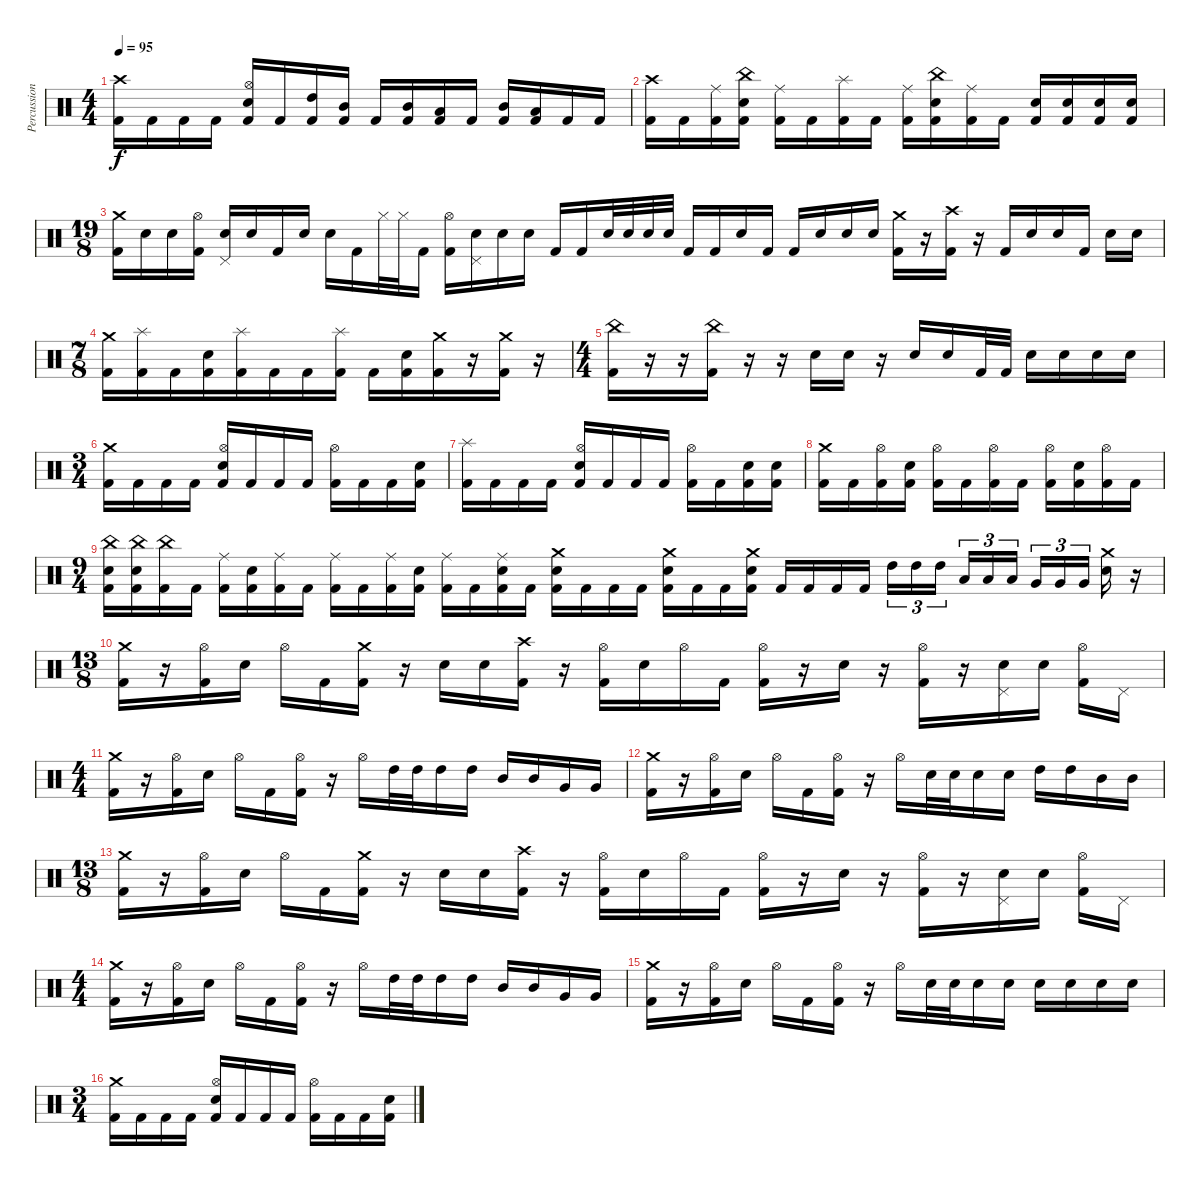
\track ("Percussion" "Percussion") {instrument percussion}
\staff {score}
\articulation defaults
\ts (4 4)
\tempo 95
\clef neutral
\ks c
("Crash high (hit)" "Kick (hit) 2").16{dy f} "Kick (hit) 2".16 "Kick (hit) 2".16 "Kick (hit) 2".16 ("Hi-Hat (open)" "Electric Snare (hit)" "Kick (hit) 2").16 "Kick (hit) 2".16 ("High Tom (hit)" "Kick (hit) 2").16 ("Mid Tom (hit)" "Kick (hit) 2").16 "Kick (hit) 2".16 ("Mid Tom (hit)" "Kick (hit) 2").16 ("Low Tom (hit)" "Kick (hit) 2").16 "Kick (hit) 2".16 ("Mid Tom (hit)" "Kick (hit) 2").16 ("Low Tom (hit)" "Kick (hit) 2").16 "Kick (hit) 2".16 "Kick (hit) 2".16 |
("Crash high (hit)" "Kick (hit) 2").16 "Kick (hit) 2".16 ("Ride (middle)" "Kick (hit) 2").16 ("China (hit)" "Electric Snare (hit)" "Kick (hit) 2").16 ("Ride (middle)" "Kick (hit) 2").16 "Kick (hit) 2".16 ("Splash (hit)" "Kick (hit) 2").16 "Kick (hit) 2".16 ("Ride (middle)" "Kick (hit) 2").16 ("China (hit)" "Electric Snare (hit)" "Kick (hit) 2").16 ("Ride (middle)" "Kick (hit) 2").16 "Kick (hit) 2".16 ("Electric Snare (hit)" "Kick (hit) 2").16 ("Electric Snare (hit)" "Kick (hit) 2").16 ("Electric Snare (hit)" "Kick (hit) 2").16 ("Electric Snare (hit)" "Kick (hit) 2").16 |
\ts (19 8)
("Crash medium (hit)" "Kick (hit) 2").16 "Electric Snare (hit)".16 "Electric Snare (hit)".16 ("Hi-Hat (open)" "Kick (hit) 2").16 ("Pedal Hi-Hat (hit)" "Electric Snare (hit)").16 "Electric Snare (hit)".16 "Kick (hit) 2".16 "Electric Snare (hit)".16 "Electric Snare (hit)".16 "Kick (hit) 2".16 "Hi-Hat (closed)".32 "Hi-Hat (closed)".32 "Kick (hit) 2".16 ("Hi-Hat (open)" "Kick (hit) 2").16 ("Electric Snare (hit)" "Pedal Hi-Hat (hit)").16 "Electric Snare (hit)".16 "Electric Snare (hit)".16 "Kick (hit) 2".16 "Kick (hit) 2".16 "Electric Snare (hit)".32 "Electric Snare (hit)".32 "Electric Snare (hit)".32 "Electric Snare (hit)".32 "Kick (hit) 2".16 "Kick (hit) 2".16 "Electric Snare (hit)".16 "Kick (hit) 2".16 "Kick (hit) 2".16 "Electric Snare (hit)".16 "Electric Snare (hit)".16 "Electric Snare (hit)".16 ("Crash medium (hit)" "Kick (hit) 2").16 r.16 ("Crash high (hit)" "Kick (hit) 2").16 r.16 "Kick (hit) 2".16 "Electric Snare (hit)".16 "Electric Snare (hit)".16 "Kick (hit) 2".16 "Electric Snare (hit)".16 "Electric Snare (hit)".16 |
\ts (7 8)
("Crash medium (hit)" "Kick (hit) 2").16 ("Splash (hit)" "Kick (hit) 2").16 "Kick (hit) 2".16 ("Electric Snare (hit)" "Kick (hit) 2").16 ("Splash (hit)" "Kick (hit) 2").16 "Kick (hit) 2".16 "Kick (hit) 2".16 ("Splash (hit)" "Kick (hit) 2").16 "Kick (hit) 2".16 ("Electric Snare (hit)" "Kick (hit) 2").16 ("Crash medium (hit)" "Kick (hit) 2").16 r.16 ("Crash medium (hit)" "Kick (hit) 2").16 r.16 |
\ts (4 4)
("China (hit)" "Kick (hit) 2").16 r.16 r.16 ("China (hit)" "Kick (hit) 2").16 r.16 r.16 "Electric Snare (hit)".16 "Electric Snare (hit)".16 r.16 "Electric Snare (hit)".16 "Electric Snare (hit)".16 "Kick (hit) 2".32 "Kick (hit) 2".32 "Electric Snare (hit)".16 "Electric Snare (hit)".16 "Electric Snare (hit)".16 "Electric Snare (hit)".16 |
\ts (3 4)
("Crash medium (hit)" "Kick (hit) 2").16 "Kick (hit) 2".16 "Kick (hit) 2".16 "Kick (hit) 2".16 ("Hi-Hat (open)" "Electric Snare (hit)" "Kick (hit) 2").16 "Kick (hit) 2".16 "Kick (hit) 2".16 "Kick (hit) 2".16 ("Hi-Hat (open)" "Kick (hit) 2").16 "Kick (hit) 2".16 "Kick (hit) 2".16 ("Electric Snare (hit)" "Kick (hit) 2").16 |
("Splash (hit)" "Kick (hit) 2").16 "Kick (hit) 2".16 "Kick (hit) 2".16 "Kick (hit) 2".16 ("Hi-Hat (open)" "Electric Snare (hit)" "Kick (hit) 2").16 "Kick (hit) 2".16 "Kick (hit) 2".16 "Kick (hit) 2".16 ("Hi-Hat (open)" "Kick (hit) 2").16 "Kick (hit) 2".16 ("Electric Snare (hit)" "Kick (hit) 2").16 ("Electric Snare (hit)" "Kick (hit) 2").16 |
("Crash medium (hit)" "Kick (hit) 2").16 "Kick (hit) 2".16 ("Hi-Hat (open)" "Kick (hit) 2").16 ("Electric Snare (hit)" "Kick (hit) 2").16 ("Hi-Hat (open)" "Kick (hit) 2").16 "Kick (hit) 2".16 ("Hi-Hat (open)" "Kick (hit) 2").16 "Kick (hit) 2".16 ("Hi-Hat (open)" "Kick (hit) 2").16 ("Electric Snare (hit)" "Kick (hit) 2").16 ("Hi-Hat (open)" "Kick (hit) 2").16 "Kick (hit) 2".16 |
\ts (9 4)
("China (hit)" "Electric Snare (hit)" "Kick (hit) 2").16 ("China (hit)" "Electric Snare (hit)" "Kick (hit) 2").16 ("China (hit)" "Kick (hit) 2").16 "Kick (hit) 2".16 ("Ride (middle)" "Kick (hit) 2").16 ("Electric Snare (hit)" "Kick (hit) 2").16 ("Ride (middle)" "Kick (hit) 2").16 "Kick (hit) 2".16 ("Ride (middle)" "Kick (hit) 2").16 "Kick (hit) 2".16 ("Ride (middle)" "Kick (hit) 2").16 ("Electric Snare (hit)" "Kick (hit) 2").16 ("Ride (middle)" "Kick (hit) 2").16 "Kick (hit) 2".16 ("Ride (middle)" "Electric Snare (hit)" "Kick (hit) 2").16 "Kick (hit) 2".16 ("Crash medium (hit)" "Electric Snare (hit)" "Kick (hit) 2").16 "Kick (hit) 2".16 "Kick (hit) 2".16 "Kick (hit) 2".16 ("Crash medium (hit)" "Electric Snare (hit)" "Kick (hit) 2").16 "Kick (hit) 2".16 "Kick (hit) 2".16 ("Crash medium (hit)" "Electric Snare (hit)" "Kick (hit) 2").16 "Kick (hit) 2".16 "Kick (hit) 2".16 "Kick (hit) 2".16 "Kick (hit) 2".16 "High Tom (hit)".16{tu (3 2)} "High Tom (hit)".16{tu (3 2)} "High Tom (hit)".16{tu (3 2)} "Low Tom (hit)".16{tu (3 2)} "Low Tom (hit)".16{tu (3 2)} "Low Tom (hit)".16{tu (3 2)} "Very Low Tom (hit)".16{tu (3 2)} "Very Low Tom (hit)".16{tu (3 2)} "Very Low Tom (hit)".16{tu (3 2)} ("Crash medium (hit)" "Electric Snare (hit)").16 r.16 |
\ts (13 8)
("Crash medium (hit)" "Kick (hit) 2").16 r.16 ("Hi-Hat (open)" "Kick (hit) 2").16 "Electric Snare (hit)".16 "Hi-Hat (open)".16 "Kick (hit) 2".16 ("Crash medium (hit)" "Kick (hit) 2").16 r.16 "Electric Snare (hit)".16 "Electric Snare (hit)".16 ("Crash high (hit)" "Kick (hit) 2").16 r.16 ("Hi-Hat (open)" "Kick (hit) 2").16 "Electric Snare (hit)".16 "Hi-Hat (open)".16 "Kick (hit) 2".16 ("Hi-Hat (open)" "Kick (hit) 2").16 r.16 "Electric Snare (hit)".16 r.16 ("Hi-Hat (open)" "Kick (hit) 2").16 r.16 ("Pedal Hi-Hat (hit)" "Electric Snare (hit)").16 "Electric Snare (hit)".16 ("Hi-Hat (open)" "Kick (hit) 2").16 "Pedal Hi-Hat (hit)".16 |
\ts (4 4)
("Crash medium (hit)" "Kick (hit) 2").16 r.16 ("Hi-Hat (open)" "Kick (hit) 2").16 "Electric Snare (hit)".16 "Hi-Hat (open)".16 "Kick (hit) 2".16 ("Hi-Hat (open)" "Kick (hit) 2").16 r.16 "Hi-Hat (open)".16 "High Tom (hit)".32 "High Tom (hit)".32 "High Tom (hit)".16 "High Tom (hit)".16 "Mid Tom (hit)".16 "Mid Tom (hit)".16 "Very Low Tom (hit)".16 "Very Low Tom (hit)".16 |
("Crash medium (hit)" "Kick (hit) 2").16 r.16 ("Hi-Hat (open)" "Kick (hit) 2").16 "Electric Snare (hit)".16 "Hi-Hat (open)".16 "Kick (hit) 2".16 ("Hi-Hat (open)" "Kick (hit) 2").16 r.16 "Hi-Hat (open)".16 "Electric Snare (hit)".32 "Electric Snare (hit)".32 "Electric Snare (hit)".16 "Electric Snare (hit)".16 "High Tom (hit)".16 "High Tom (hit)".16 "Mid Tom (hit)".16 "Mid Tom (hit)".16 |
\ts (13 8)
("Crash medium (hit)" "Kick (hit) 2").16 r.16 ("Hi-Hat (open)" "Kick (hit) 2").16 "Electric Snare (hit)".16 "Hi-Hat (open)".16 "Kick (hit) 2".16 ("Crash medium (hit)" "Kick (hit) 2").16 r.16 "Electric Snare (hit)".16 "Electric Snare (hit)".16 ("Crash high (hit)" "Kick (hit) 2").16 r.16 ("Hi-Hat (open)" "Kick (hit) 2").16 "Electric Snare (hit)".16 "Hi-Hat (open)".16 "Kick (hit) 2".16 ("Hi-Hat (open)" "Kick (hit) 2").16 r.16 "Electric Snare (hit)".16 r.16 ("Hi-Hat (open)" "Kick (hit) 2").16 r.16 ("Pedal Hi-Hat (hit)" "Electric Snare (hit)").16 "Electric Snare (hit)".16 ("Hi-Hat (open)" "Kick (hit) 2").16 "Pedal Hi-Hat (hit)".16 |
\ts (4 4)
("Crash medium (hit)" "Kick (hit) 2").16 r.16 ("Hi-Hat (open)" "Kick (hit) 2").16 "Electric Snare (hit)".16 "Hi-Hat (open)".16 "Kick (hit) 2".16 ("Hi-Hat (open)" "Kick (hit) 2").16 r.16 "Hi-Hat (open)".16 "High Tom (hit)".32 "High Tom (hit)".32 "High Tom (hit)".16 "High Tom (hit)".16 "Mid Tom (hit)".16 "Mid Tom (hit)".16 "Very Low Tom (hit)".16 "Very Low Tom (hit)".16 |
("Crash medium (hit)" "Kick (hit) 2").16 r.16 ("Hi-Hat (open)" "Kick (hit) 2").16 "Electric Snare (hit)".16 "Hi-Hat (open)".16 "Kick (hit) 2".16 ("Hi-Hat (open)" "Kick (hit) 2").16 r.16 "Hi-Hat (open)".16 "Electric Snare (hit)".32 "Electric Snare (hit)".32 "Electric Snare (hit)".16 "Electric Snare (hit)".16 "Electric Snare (hit)".16 "Electric Snare (hit)".16 "Electric Snare (hit)".16 "Electric Snare (hit)".16 |
\ts (3 4)
("Crash medium (hit)" "Kick (hit) 2").16 "Kick (hit) 2".16 "Kick (hit) 2".16 "Kick (hit) 2".16 ("Hi-Hat (open)" "Electric Snare (hit)" "Kick (hit) 2").16 "Kick (hit) 2".16 "Kick (hit) 2".16 "Kick (hit) 2".16 ("Hi-Hat (open)" "Kick (hit) 2").16 "Kick (hit) 2".16 "Kick (hit) 2".16 ("Electric Snare (hit)" "Kick (hit) 2").16
